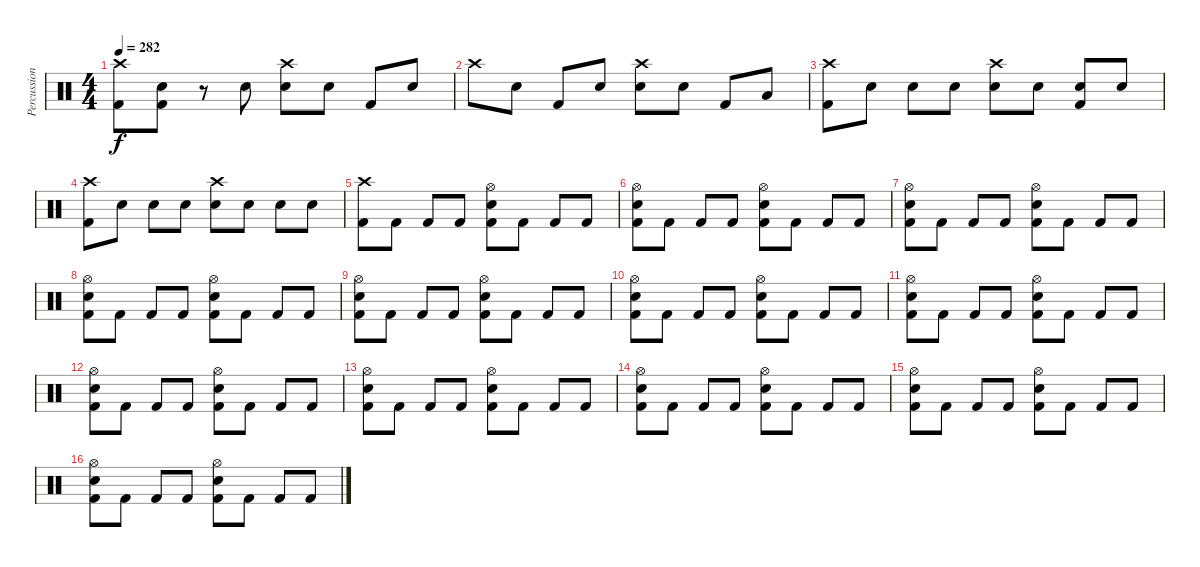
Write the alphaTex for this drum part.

\track ("Percussion" "Percussion") {instrument percussion}
\staff {score}
\articulation defaults
\ts (4 4)
\tempo 282
\clef neutral
\ks c
("Kick (hit) 2" "Crash high (hit)").8{dy f} ("Kick (hit) 2" "Snare (hit)"{x}).8 r.8 "Snare (hit)"{x}.8 ("Snare (hit) 2" "Crash high (hit)").8 "Snare (hit)"{x}.8 "Kick (hit) 2"{x}.8 "Snare (hit)"{x}.8 |
"Crash high (hit)".8 "Snare (hit)"{x}.8 "Kick (hit) 2".8 "Snare (hit)"{x}.8 ("Snare (hit) 2" "Crash high (hit)").8 "Snare (hit)"{x}.8 "Kick (hit) 2".8 "Low Tom (hit)".8 |
("Kick (hit) 2" "Crash high (hit)").8 "Snare (hit)"{x}.8 "Snare (hit)"{x}.8 "Snare (hit)"{x}.8 ("Snare (hit) 2" "Crash high (hit)").8 "Snare (hit)"{x}.8 ("Kick (hit) 2" "Snare (hit)"{x}).8 "Snare (hit)"{x}.8 |
("Kick (hit) 2" "Crash high (hit)").8 "Snare (hit)"{x}.8 "Snare (hit)"{x}.8 "Snare (hit)"{x}.8 ("Snare (hit) 2" "Crash high (hit)").8 "Snare (hit)"{x}.8 "Snare (hit)"{x}.8 "Snare (hit)"{x}.8 |
("Kick (hit) 2" "Crash high (hit)").8 "Kick (hit) 2".8 "Kick (hit) 2".8 "Kick (hit) 2".8 ("Kick (hit) 2" "Snare (hit) 2" "Hi-Hat (open)").8 "Kick (hit) 2".8 "Kick (hit) 2".8 "Kick (hit) 2".8 |
("Kick (hit) 2" "Snare (hit) 2" "Hi-Hat (open)").8 "Kick (hit) 2".8 "Kick (hit) 2".8 "Kick (hit) 2".8 ("Kick (hit) 2" "Snare (hit) 2" "Hi-Hat (open)").8 "Kick (hit) 2".8 "Kick (hit) 2".8 "Kick (hit) 2".8 |
("Kick (hit) 2" "Snare (hit) 2" "Hi-Hat (open)").8 "Kick (hit) 2".8 "Kick (hit) 2".8 "Kick (hit) 2".8 ("Kick (hit) 2" "Snare (hit) 2" "Hi-Hat (open)").8 "Kick (hit) 2".8 "Kick (hit) 2".8 "Kick (hit) 2".8 |
("Kick (hit) 2" "Snare (hit) 2" "Hi-Hat (open)").8 "Kick (hit) 2".8 "Kick (hit) 2".8 "Kick (hit) 2".8 ("Kick (hit) 2" "Snare (hit) 2" "Hi-Hat (open)").8 "Kick (hit) 2".8 "Kick (hit) 2".8 "Kick (hit) 2".8 |
("Kick (hit) 2" "Snare (hit) 2" "Hi-Hat (open)").8 "Kick (hit) 2".8 "Kick (hit) 2".8 "Kick (hit) 2".8 ("Kick (hit) 2" "Snare (hit) 2" "Hi-Hat (open)").8 "Kick (hit) 2".8 "Kick (hit) 2".8 "Kick (hit) 2".8 |
("Kick (hit) 2" "Snare (hit) 2" "Hi-Hat (open)").8 "Kick (hit) 2".8 "Kick (hit) 2".8 "Kick (hit) 2".8 ("Kick (hit) 2" "Snare (hit) 2" "Hi-Hat (open)").8 "Kick (hit) 2".8 "Kick (hit) 2".8 "Kick (hit) 2".8 |
("Kick (hit) 2" "Snare (hit) 2" "Hi-Hat (open)").8 "Kick (hit) 2".8 "Kick (hit) 2".8 "Kick (hit) 2".8 ("Kick (hit) 2" "Snare (hit) 2" "Hi-Hat (open)").8 "Kick (hit) 2".8 "Kick (hit) 2".8 "Kick (hit) 2".8 |
("Kick (hit) 2" "Snare (hit) 2" "Hi-Hat (open)").8 "Kick (hit) 2".8 "Kick (hit) 2".8 "Kick (hit) 2".8 ("Kick (hit) 2" "Snare (hit) 2" "Hi-Hat (open)").8 "Kick (hit) 2".8 "Kick (hit) 2".8 "Kick (hit) 2".8 |
("Kick (hit) 2" "Snare (hit) 2" "Hi-Hat (open)").8 "Kick (hit) 2".8 "Kick (hit) 2".8 "Kick (hit) 2".8 ("Kick (hit) 2" "Snare (hit) 2" "Hi-Hat (open)").8 "Kick (hit) 2".8 "Kick (hit) 2".8 "Kick (hit) 2".8 |
("Kick (hit) 2" "Snare (hit) 2" "Hi-Hat (open)").8 "Kick (hit) 2".8 "Kick (hit) 2".8 "Kick (hit) 2".8 ("Kick (hit) 2" "Snare (hit) 2" "Hi-Hat (open)").8 "Kick (hit) 2".8 "Kick (hit) 2".8 "Kick (hit) 2".8 |
("Kick (hit) 2" "Snare (hit) 2" "Hi-Hat (open)").8 "Kick (hit) 2".8 "Kick (hit) 2".8 "Kick (hit) 2".8 ("Kick (hit) 2" "Snare (hit) 2" "Hi-Hat (open)").8 "Kick (hit) 2".8 "Kick (hit) 2".8 "Kick (hit) 2".8 |
("Kick (hit) 2" "Snare (hit) 2" "Hi-Hat (open)").8 "Kick (hit) 2".8 "Kick (hit) 2".8 "Kick (hit) 2".8 ("Kick (hit) 2" "Snare (hit) 2" "Hi-Hat (open)").8 "Kick (hit) 2".8 "Kick (hit) 2".8 "Kick (hit) 2".8
